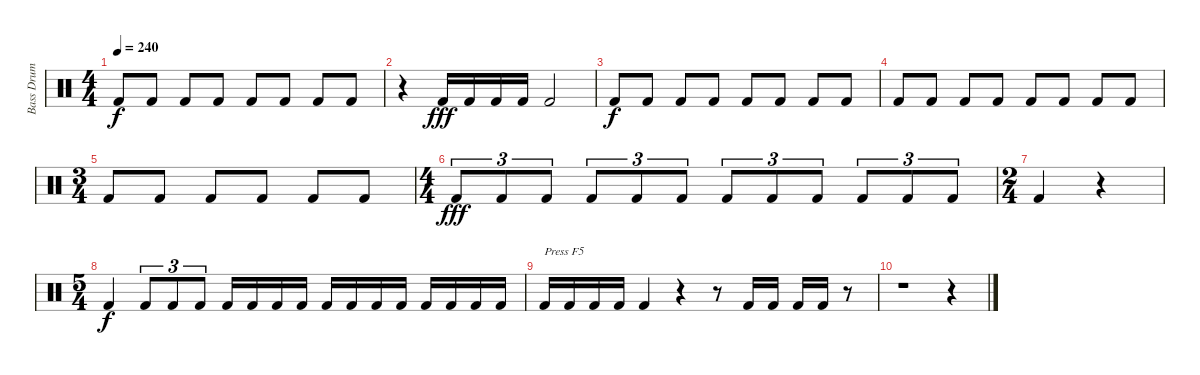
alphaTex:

\track ("Bass Drum" "Bass Drum") {instrument percussion}
\staff {score}
\articulation defaults
\ts (4 4)
\tempo 240
\clef neutral
\ks c "Kick (hit) 2".8{dy f} "Kick (hit) 2".8 "Kick (hit) 2".8 "Kick (hit) 2".8 "Kick (hit) 2".8 "Kick (hit) 2".8 "Kick (hit) 2".8 "Kick (hit) 2".8
|
r.4 "Kick (hit) 2".16{dy fff} "Kick (hit) 2".16 "Kick (hit) 2".16 "Kick (hit) 2".16 "Kick (hit) 2".2 |
"Kick (hit) 2".8{dy f} "Kick (hit) 2".8 "Kick (hit) 2".8 "Kick (hit) 2".8 "Kick (hit) 2".8 "Kick (hit) 2".8 "Kick (hit) 2".8 "Kick (hit) 2".8 |
"Kick (hit) 2".8 "Kick (hit) 2".8 "Kick (hit) 2".8 "Kick (hit) 2".8 "Kick (hit) 2".8 "Kick (hit) 2".8 "Kick (hit) 2".8 "Kick (hit) 2".8 |
\ts (3 4)
"Kick (hit) 2".8 "Kick (hit) 2".8 "Kick (hit) 2".8 "Kick (hit) 2".8 "Kick (hit) 2".8 "Kick (hit) 2".8 |
\ts (4 4)
"Kick (hit) 2".8{tu (3 2) dy fff} "Kick (hit) 2".8{tu (3 2)} "Kick (hit) 2".8{tu (3 2)} "Kick (hit) 2".8{tu (3 2)} "Kick (hit) 2".8{tu (3 2)} "Kick (hit) 2".8{tu (3 2)} "Kick (hit) 2".8{tu (3 2)} "Kick (hit) 2".8{tu (3 2)} "Kick (hit) 2".8{tu (3 2)} "Kick (hit) 2".8{tu (3 2)} "Kick (hit) 2".8{tu (3 2)} "Kick (hit) 2".8{tu (3 2)} |
\ts (2 4)
"Kick (hit) 2".4 r.4 |
\ts (5 4)
"Kick (hit) 2".4{dy f} "Kick (hit) 2".8{tu (3 2)} "Kick (hit) 2".8{tu (3 2)} "Kick (hit) 2".8{tu (3 2)} "Kick (hit) 2".16 "Kick (hit) 2".16 "Kick (hit) 2".16 "Kick (hit) 2".16 "Kick (hit) 2".16 "Kick (hit) 2".16 "Kick (hit) 2".16 "Kick (hit) 2".16 "Kick (hit) 2".16 "Kick (hit) 2".16 "Kick (hit) 2".16 "Kick (hit) 2".16 |
"Kick (hit) 2".16{txt "Press F5"} "Kick (hit) 2".16 "Kick (hit) 2".16 "Kick (hit) 2".16 "Kick (hit) 2".4 r.4 r.8 "Kick (hit) 2".16 "Kick (hit) 2".16 "Kick (hit) 2".16 "Kick (hit) 2".16 r.8 |
r.1 r.4
